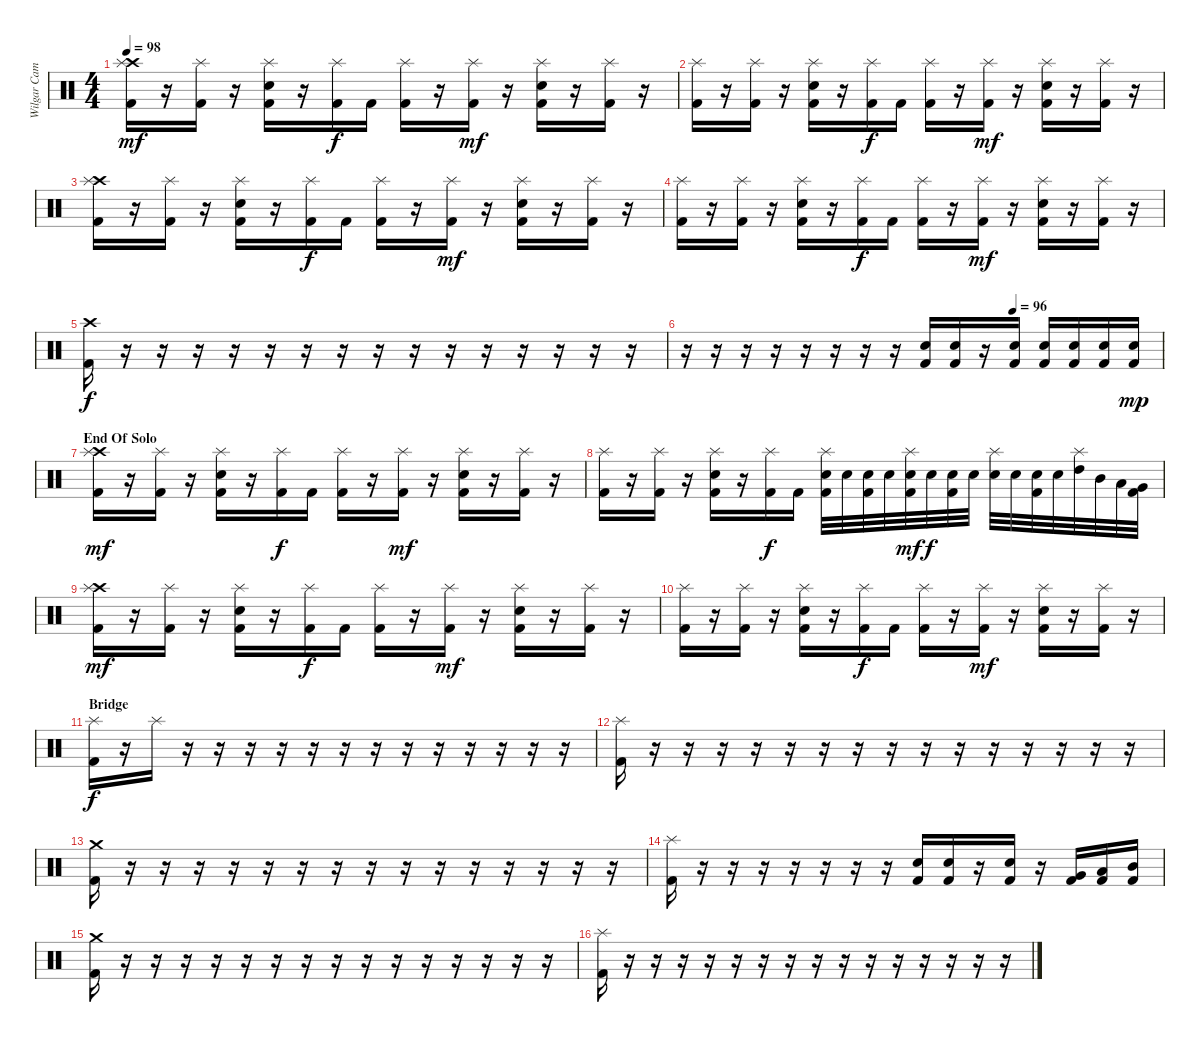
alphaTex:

\track ("Wilgar Campbell" "Wilgar Cam") {instrument percussion}
\staff {score}
\articulation defaults
\ts (4 4)
\tempo 98
\clef neutral
\ks c
("Crash high (hit)" "Splash (hit)" "Kick (hit) 2").16{dy mf} r.16 ("Splash (hit)" "Kick (hit) 2").16 r.16 ("Splash (hit)" "Snare (hit) 2" "Kick (hit) 2").16 r.16 ("Splash (hit)" "Kick (hit) 2").16{dy f} "Kick (hit) 2".16 ("Splash (hit)" "Kick (hit) 2").16 r.16 ("Splash (hit)" "Kick (hit) 2").16{dy mf} r.16 ("Splash (hit)" "Snare (hit) 2" "Kick (hit) 2").16 r.16 ("Splash (hit)" "Kick (hit) 2").16 r.16 |
("Splash (hit)" "Kick (hit) 2").16 r.16 ("Splash (hit)" "Kick (hit) 2").16 r.16 ("Splash (hit)" "Snare (hit) 2" "Kick (hit) 2").16 r.16 ("Splash (hit)" "Kick (hit) 2").16{dy f} "Kick (hit) 2".16 ("Splash (hit)" "Kick (hit) 2").16 r.16 ("Splash (hit)" "Kick (hit) 2").16{dy mf} r.16 ("Splash (hit)" "Snare (hit) 2" "Kick (hit) 2").16 r.16 ("Splash (hit)" "Kick (hit) 2").16 r.16 |
("Crash high (hit)" "Splash (hit)" "Kick (hit) 2").16 r.16 ("Splash (hit)" "Kick (hit) 2").16 r.16 ("Splash (hit)" "Snare (hit) 2" "Kick (hit) 2").16 r.16 ("Splash (hit)" "Kick (hit) 2").16{dy f} "Kick (hit) 2".16 ("Splash (hit)" "Kick (hit) 2").16 r.16 ("Splash (hit)" "Kick (hit) 2").16{dy mf} r.16 ("Splash (hit)" "Snare (hit) 2" "Kick (hit) 2").16 r.16 ("Splash (hit)" "Kick (hit) 2").16 r.16 |
("Splash (hit)" "Kick (hit) 2").16 r.16 ("Splash (hit)" "Kick (hit) 2").16 r.16 ("Splash (hit)" "Snare (hit) 2" "Kick (hit) 2").16 r.16 ("Splash (hit)" "Kick (hit) 2").16{dy f} "Kick (hit) 2".16 ("Splash (hit)" "Kick (hit) 2").16 r.16 ("Splash (hit)" "Kick (hit) 2").16{dy mf} r.16 ("Splash (hit)" "Snare (hit) 2" "Kick (hit) 2").16 r.16 ("Splash (hit)" "Kick (hit) 2").16 r.16 |
("Crash high (hit)" "Kick (hit) 2").16{dy f} r.16 r.16 r.16 r.16 r.16 r.16 r.16 r.16 r.16 r.16 r.16 r.16 r.16 r.16 r.16 |
\tempo (96 0.6875)
r.16 r.16 r.16 r.16 r.16 r.16 r.16 r.16 ("Snare (hit) 2" "Kick (hit) 2").16 ("Snare (hit) 2" "Kick (hit) 2").16 r.16 ("Snare (hit) 2" "Kick (hit) 2").16 ("Snare (hit) 2" "Kick (hit) 2").16 ("Snare (hit) 2" "Kick (hit) 2").16 ("Electric Snare (hit)" "Kick (hit) 2").16 ("Snare (hit) 2" "Kick (hit) 2").16{dy mp} |
\section ("" "End Of Solo")
("Crash high (hit)" "Splash (hit)" "Kick (hit) 2").16{dy mf} r.16 ("Splash (hit)" "Kick (hit) 2").16 r.16 ("Splash (hit)" "Snare (hit) 2" "Kick (hit) 2").16 r.16 ("Splash (hit)" "Kick (hit) 2").16{dy f} "Kick (hit) 2".16 ("Splash (hit)" "Kick (hit) 2").16 r.16 ("Splash (hit)" "Kick (hit) 2").16{dy mf} r.16 ("Splash (hit)" "Snare (hit) 2" "Kick (hit) 2").16 r.16 ("Splash (hit)" "Kick (hit) 2").16 r.16 |
("Splash (hit)" "Kick (hit) 2").16 r.16 ("Splash (hit)" "Kick (hit) 2").16 r.16 ("Splash (hit)" "Snare (hit) 2" "Kick (hit) 2").16 r.16 ("Splash (hit)" "Kick (hit) 2").16{dy f} "Kick (hit) 2".16 ("Splash (hit)" "Electric Snare (hit)" "Kick (hit) 2").32 "Electric Snare (hit)".32 ("Electric Snare (hit)" "Kick (hit) 2").32 "Electric Snare (hit)".32 ("Splash (hit)" "Electric Snare (hit)" "Kick (hit) 2").32{dy mf} "Electric Snare (hit)".32{dy f} ("Snare (hit) 2" "Kick (hit) 2").32 "Electric Snare (hit)".32 ("Splash (hit)" "Electric Snare (hit)").32 "Electric Snare (hit)".32 ("Snare (hit) 2" "Kick (hit) 2").32 "Electric Snare (hit)".32 ("Splash (hit)" "High Tom (hit)").32 "Mid Tom (hit)".32 "Low Tom (hit)".32 ("Very Low Tom (hit)" "Kick (hit) 2").32 |
("Crash high (hit)" "Splash (hit)" "Kick (hit) 2").16{dy mf} r.16 ("Splash (hit)" "Kick (hit) 2").16 r.16 ("Splash (hit)" "Snare (hit) 2" "Kick (hit) 2").16 r.16 ("Splash (hit)" "Kick (hit) 2").16{dy f} "Kick (hit) 2".16 ("Splash (hit)" "Kick (hit) 2").16 r.16 ("Splash (hit)" "Kick (hit) 2").16{dy mf} r.16 ("Splash (hit)" "Snare (hit) 2" "Kick (hit) 2").16 r.16 ("Splash (hit)" "Kick (hit) 2").16 r.16 |
("Splash (hit)" "Kick (hit) 2").16 r.16 ("Splash (hit)" "Kick (hit) 2").16 r.16 ("Splash (hit)" "Snare (hit) 2" "Kick (hit) 2").16 r.16 ("Splash (hit)" "Kick (hit) 2").16{dy f} "Kick (hit) 2".16 ("Splash (hit)" "Kick (hit) 2").16 r.16 ("Splash (hit)" "Kick (hit) 2").16{dy mf} r.16 ("Splash (hit)" "Snare (hit) 2" "Kick (hit) 2").16 r.16 ("Splash (hit)" "Kick (hit) 2").16 r.16 |
\section ("" "Bridge")
("Splash (hit)" "Kick (hit) 2").16{dy f} r.16 "Splash (hit)".16 r.16 r.16 r.16 r.16 r.16 r.16 r.16 r.16 r.16 r.16 r.16 r.16 r.16 |
("Splash (hit)" "Kick (hit) 2").16 r.16 r.16 r.16 r.16 r.16 r.16 r.16 r.16 r.16 r.16 r.16 r.16 r.16 r.16 r.16 |
("Crash medium (hit)" "Kick (hit) 2").16 r.16 r.16 r.16 r.16 r.16 r.16 r.16 r.16 r.16 r.16 r.16 r.16 r.16 r.16 r.16 |
("Splash (hit)" "Kick (hit) 2").16 r.16 r.16 r.16 r.16 r.16 r.16 r.16 ("Snare (hit) 2" "Kick (hit) 2").16 ("Snare (hit) 2" "Kick (hit) 2").16 r.16 ("Snare (hit) 2" "Kick (hit) 2").16 r.16 ("Very Low Tom (hit)" "Kick (hit) 2").16 ("Low Tom (hit)" "Kick (hit) 2").16 ("Mid Tom (hit)" "Kick (hit) 2").16 |
("Crash medium (hit)" "Kick (hit) 2").16 r.16 r.16 r.16 r.16 r.16 r.16 r.16 r.16 r.16 r.16 r.16 r.16 r.16 r.16 r.16 |
("Splash (hit)" "Kick (hit) 2").16 r.16 r.16 r.16 r.16 r.16 r.16 r.16 r.16 r.16 r.16 r.16 r.16 r.16 r.16 r.16
